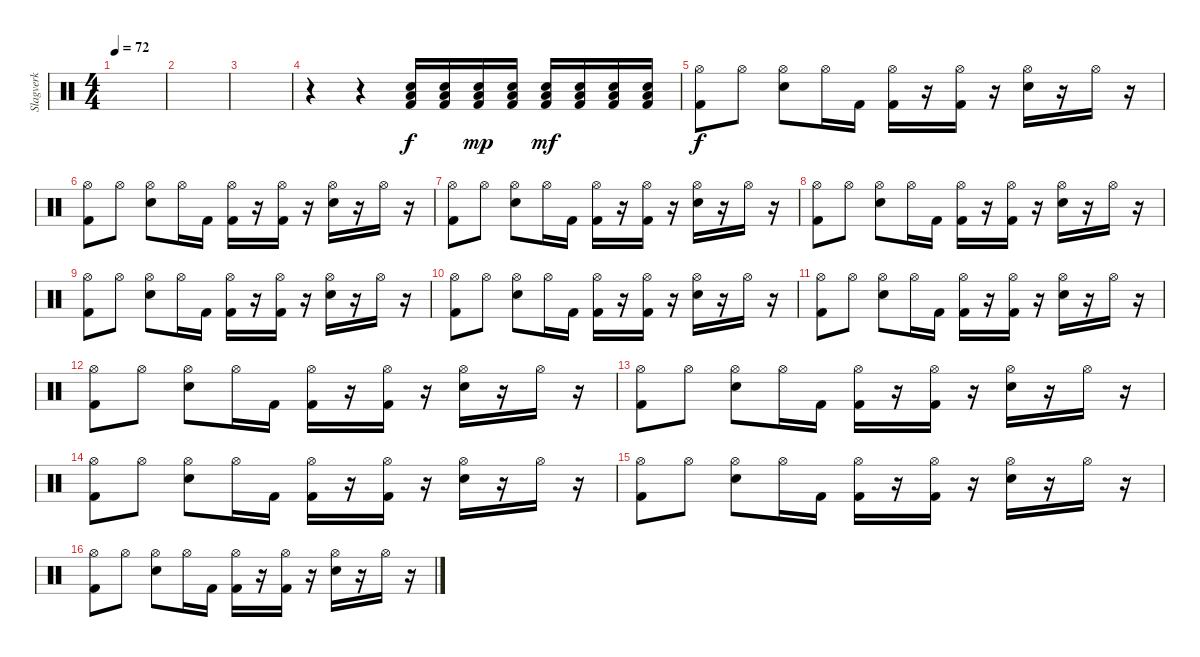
\track ("Slagverk" "Slagverk") {instrument percussion}
\staff {score}
\articulation defaults
\ts (4 4)
\tempo 72
\clef neutral
\ks c
|
|
|
r.4 r.4 ("Low Floor Tom (hit)" "Electric Snare (hit)" "Kick (hit) 2").16 ("Low Floor Tom (hit)" "Electric Snare (hit)" "Kick (hit) 2").16 ("Low Floor Tom (hit)" "Electric Snare (hit)" "Kick (hit) 2").16{dy mp} ("Low Floor Tom (hit)" "Electric Snare (hit)" "Kick (hit) 2").16 ("Low Floor Tom (hit)" "Electric Snare (hit)" "Kick (hit) 2").16{dy mf} ("Low Floor Tom (hit)" "Electric Snare (hit)" "Kick (hit) 2").16 ("Low Floor Tom (hit)" "Electric Snare (hit)" "Kick (hit) 2").16 ("Low Floor Tom (hit)" "Electric Snare (hit)" "Kick (hit) 2").16 |
("Hi-Hat (open)" "Kick (hit) 2").8{dy f} "Hi-Hat (open)".8 ("Hi-Hat (open)" "Electric Snare (hit)").8 "Hi-Hat (open)".16 "Kick (hit) 2".16 ("Hi-Hat (open)" "Kick (hit) 2").16 r.16 ("Hi-Hat (open)" "Kick (hit) 2").16 r.16 ("Hi-Hat (open)" "Electric Snare (hit)").16 r.16 "Hi-Hat (open)".16 r.16 |
("Hi-Hat (open)" "Kick (hit) 2").8 "Hi-Hat (open)".8 ("Hi-Hat (open)" "Electric Snare (hit)").8 "Hi-Hat (open)".16 "Kick (hit) 2".16 ("Hi-Hat (open)" "Kick (hit) 2").16 r.16 ("Hi-Hat (open)" "Kick (hit) 2").16 r.16 ("Hi-Hat (open)" "Electric Snare (hit)").16 r.16 "Hi-Hat (open)".16 r.16 |
("Hi-Hat (open)" "Kick (hit) 2").8 "Hi-Hat (open)".8 ("Hi-Hat (open)" "Electric Snare (hit)").8 "Hi-Hat (open)".16 "Kick (hit) 2".16 ("Hi-Hat (open)" "Kick (hit) 2").16 r.16 ("Hi-Hat (open)" "Kick (hit) 2").16 r.16 ("Hi-Hat (open)" "Electric Snare (hit)").16 r.16 "Hi-Hat (open)".16 r.16 |
("Hi-Hat (open)" "Kick (hit) 2").8 "Hi-Hat (open)".8 ("Hi-Hat (open)" "Electric Snare (hit)").8 "Hi-Hat (open)".16 "Kick (hit) 2".16 ("Hi-Hat (open)" "Kick (hit) 2").16 r.16 ("Hi-Hat (open)" "Kick (hit) 2").16 r.16 ("Hi-Hat (open)" "Electric Snare (hit)").16 r.16 "Hi-Hat (open)".16 r.16 |
("Hi-Hat (open)" "Kick (hit) 2").8 "Hi-Hat (open)".8 ("Hi-Hat (open)" "Electric Snare (hit)").8 "Hi-Hat (open)".16 "Kick (hit) 2".16 ("Hi-Hat (open)" "Kick (hit) 2").16 r.16 ("Hi-Hat (open)" "Kick (hit) 2").16 r.16 ("Hi-Hat (open)" "Electric Snare (hit)").16 r.16 "Hi-Hat (open)".16 r.16 |
("Hi-Hat (open)" "Kick (hit) 2").8 "Hi-Hat (open)".8 ("Hi-Hat (open)" "Electric Snare (hit)").8 "Hi-Hat (open)".16 "Kick (hit) 2".16 ("Hi-Hat (open)" "Kick (hit) 2").16 r.16 ("Hi-Hat (open)" "Kick (hit) 2").16 r.16 ("Hi-Hat (open)" "Electric Snare (hit)").16 r.16 "Hi-Hat (open)".16 r.16 |
("Hi-Hat (open)" "Kick (hit) 2").8 "Hi-Hat (open)".8 ("Hi-Hat (open)" "Electric Snare (hit)").8 "Hi-Hat (open)".16 "Kick (hit) 2".16 ("Hi-Hat (open)" "Kick (hit) 2").16 r.16 ("Hi-Hat (open)" "Kick (hit) 2").16 r.16 ("Hi-Hat (open)" "Electric Snare (hit)").16 r.16 "Hi-Hat (open)".16 r.16 |
("Hi-Hat (open)" "Kick (hit) 2").8 "Hi-Hat (open)".8 ("Hi-Hat (open)" "Electric Snare (hit)").8 "Hi-Hat (open)".16 "Kick (hit) 2".16 ("Hi-Hat (open)" "Kick (hit) 2").16 r.16 ("Hi-Hat (open)" "Kick (hit) 2").16 r.16 ("Hi-Hat (open)" "Electric Snare (hit)").16 r.16 "Hi-Hat (open)".16 r.16 |
("Hi-Hat (open)" "Kick (hit) 2").8 "Hi-Hat (open)".8 ("Hi-Hat (open)" "Electric Snare (hit)").8 "Hi-Hat (open)".16 "Kick (hit) 2".16 ("Hi-Hat (open)" "Kick (hit) 2").16 r.16 ("Hi-Hat (open)" "Kick (hit) 2").16 r.16 ("Hi-Hat (open)" "Electric Snare (hit)").16 r.16 "Hi-Hat (open)".16 r.16 |
("Hi-Hat (open)" "Kick (hit) 2").8 "Hi-Hat (open)".8 ("Hi-Hat (open)" "Electric Snare (hit)").8 "Hi-Hat (open)".16 "Kick (hit) 2".16 ("Hi-Hat (open)" "Kick (hit) 2").16 r.16 ("Hi-Hat (open)" "Kick (hit) 2").16 r.16 ("Hi-Hat (open)" "Electric Snare (hit)").16 r.16 "Hi-Hat (open)".16 r.16 |
("Hi-Hat (open)" "Kick (hit) 2").8 "Hi-Hat (open)".8 ("Hi-Hat (open)" "Electric Snare (hit)").8 "Hi-Hat (open)".16 "Kick (hit) 2".16 ("Hi-Hat (open)" "Kick (hit) 2").16 r.16 ("Hi-Hat (open)" "Kick (hit) 2").16 r.16 ("Hi-Hat (open)" "Electric Snare (hit)").16 r.16 "Hi-Hat (open)".16 r.16 |
("Hi-Hat (open)" "Kick (hit) 2").8 "Hi-Hat (open)".8 ("Hi-Hat (open)" "Electric Snare (hit)").8 "Hi-Hat (open)".16 "Kick (hit) 2".16 ("Hi-Hat (open)" "Kick (hit) 2").16 r.16 ("Hi-Hat (open)" "Kick (hit) 2").16 r.16 ("Hi-Hat (open)" "Electric Snare (hit)").16 r.16 "Hi-Hat (open)".16 r.16
